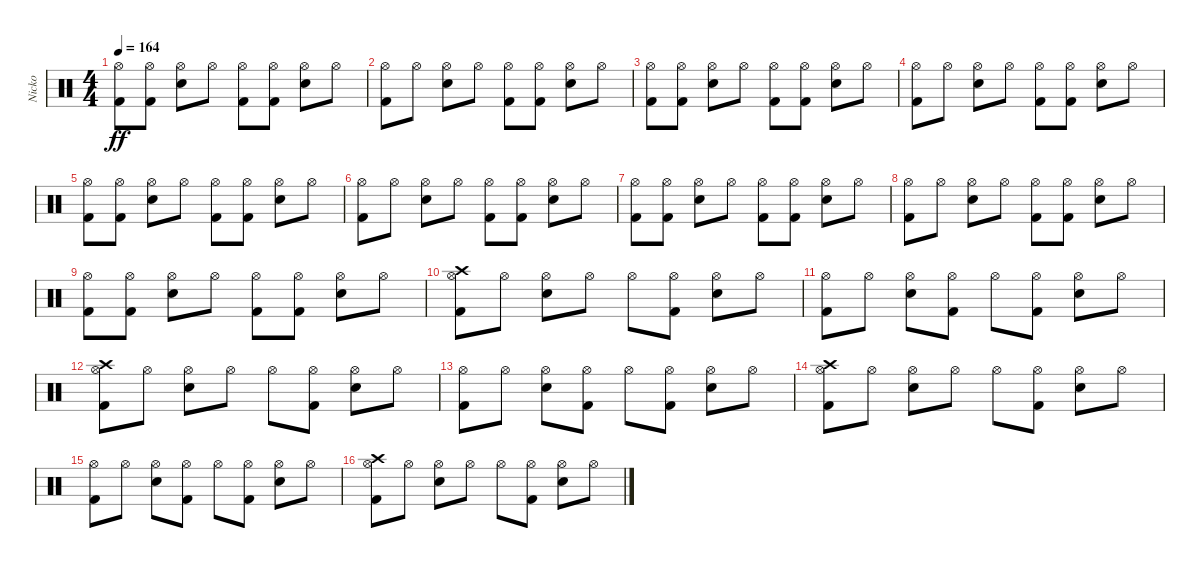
\track ("Nicko" "Nicko") {instrument percussion}
\staff {score}
\articulation defaults
\ts (4 4)
\tempo 164
\clef neutral
\ks c
("Kick (hit) 2" "Hi-Hat (open)").8{dy ff} ("Kick (hit) 2" "Hi-Hat (open)").8 ("Snare (hit) 2" "Hi-Hat (open)").8 "Hi-Hat (open)".8 ("Kick (hit) 2" "Hi-Hat (open)").8 ("Kick (hit) 2" "Hi-Hat (open)").8 ("Snare (hit) 2" "Hi-Hat (open)").8 "Hi-Hat (open)".8 |
("Kick (hit) 2" "Hi-Hat (open)").8 "Hi-Hat (open)".8 ("Snare (hit) 2" "Hi-Hat (open)").8 "Hi-Hat (open)".8 ("Kick (hit) 2" "Hi-Hat (open)").8 ("Kick (hit) 2" "Hi-Hat (open)").8 ("Snare (hit) 2" "Hi-Hat (open)").8 "Hi-Hat (open)".8 |
("Kick (hit) 2" "Hi-Hat (open)").8 ("Kick (hit) 2" "Hi-Hat (open)").8 ("Snare (hit) 2" "Hi-Hat (open)").8 "Hi-Hat (open)".8 ("Kick (hit) 2" "Hi-Hat (open)").8 ("Kick (hit) 2" "Hi-Hat (open)").8 ("Snare (hit) 2" "Hi-Hat (open)").8 "Hi-Hat (open)".8 |
("Kick (hit) 2" "Hi-Hat (open)").8 "Hi-Hat (open)".8 ("Snare (hit) 2" "Hi-Hat (open)").8 "Hi-Hat (open)".8 ("Kick (hit) 2" "Hi-Hat (open)").8 ("Kick (hit) 2" "Hi-Hat (open)").8 ("Snare (hit) 2" "Hi-Hat (open)").8 "Hi-Hat (open)".8 |
("Kick (hit) 2" "Hi-Hat (open)").8 ("Kick (hit) 2" "Hi-Hat (open)").8 ("Snare (hit) 2" "Hi-Hat (open)").8 "Hi-Hat (open)".8 ("Kick (hit) 2" "Hi-Hat (open)").8 ("Kick (hit) 2" "Hi-Hat (open)").8 ("Snare (hit) 2" "Hi-Hat (open)").8 "Hi-Hat (open)".8 |
("Kick (hit) 2" "Hi-Hat (open)").8 "Hi-Hat (open)".8 ("Snare (hit) 2" "Hi-Hat (open)").8 "Hi-Hat (open)".8 ("Kick (hit) 2" "Hi-Hat (open)").8 ("Kick (hit) 2" "Hi-Hat (open)").8 ("Snare (hit) 2" "Hi-Hat (open)").8 "Hi-Hat (open)".8 |
("Kick (hit) 2" "Hi-Hat (open)").8 ("Kick (hit) 2" "Hi-Hat (open)").8 ("Snare (hit) 2" "Hi-Hat (open)").8 "Hi-Hat (open)".8 ("Kick (hit) 2" "Hi-Hat (open)").8 ("Kick (hit) 2" "Hi-Hat (open)").8 ("Snare (hit) 2" "Hi-Hat (open)").8 "Hi-Hat (open)".8 |
("Kick (hit) 2" "Hi-Hat (open)").8 "Hi-Hat (open)".8 ("Snare (hit) 2" "Hi-Hat (open)").8 "Hi-Hat (open)".8 ("Kick (hit) 2" "Hi-Hat (open)").8 ("Kick (hit) 2" "Hi-Hat (open)").8 ("Snare (hit) 2" "Hi-Hat (open)").8 "Hi-Hat (open)".8 |
("Kick (hit) 2" "Hi-Hat (open)").8 ("Kick (hit) 2" "Hi-Hat (open)").8 ("Snare (hit) 2" "Hi-Hat (open)").8 "Hi-Hat (open)".8 ("Kick (hit) 2" "Hi-Hat (open)").8 ("Kick (hit) 2" "Hi-Hat (open)").8 ("Snare (hit) 2" "Hi-Hat (open)").8 "Hi-Hat (open)".8 |
("Kick (hit) 2" "Hi-Hat (open)" "Crash high (hit)").8 "Hi-Hat (open)".8 ("Snare (hit) 2" "Hi-Hat (open)").8 "Hi-Hat (open)".8 "Hi-Hat (open)".8 ("Kick (hit) 2" "Hi-Hat (open)").8 ("Snare (hit) 2" "Hi-Hat (open)").8 "Hi-Hat (open)".8 |
("Kick (hit) 2" "Hi-Hat (open)").8 "Hi-Hat (open)".8 ("Snare (hit) 2" "Hi-Hat (open)").8 ("Kick (hit) 2" "Hi-Hat (open)").8 "Hi-Hat (open)".8 ("Kick (hit) 2" "Hi-Hat (open)").8 ("Snare (hit) 2" "Hi-Hat (open)").8 "Hi-Hat (open)".8 |
("Kick (hit) 2" "Hi-Hat (open)" "Crash high (hit)").8 "Hi-Hat (open)".8 ("Snare (hit) 2" "Hi-Hat (open)").8 "Hi-Hat (open)".8 "Hi-Hat (open)".8 ("Kick (hit) 2" "Hi-Hat (open)").8 ("Snare (hit) 2" "Hi-Hat (open)").8 "Hi-Hat (open)".8 |
("Kick (hit) 2" "Hi-Hat (open)").8 "Hi-Hat (open)".8 ("Snare (hit) 2" "Hi-Hat (open)").8 ("Kick (hit) 2" "Hi-Hat (open)").8 "Hi-Hat (open)".8 ("Kick (hit) 2" "Hi-Hat (open)").8 ("Snare (hit) 2" "Hi-Hat (open)").8 "Hi-Hat (open)".8 |
("Kick (hit) 2" "Hi-Hat (open)" "Crash high (hit)").8 "Hi-Hat (open)".8 ("Snare (hit) 2" "Hi-Hat (open)").8 "Hi-Hat (open)".8 "Hi-Hat (open)".8 ("Kick (hit) 2" "Hi-Hat (open)").8 ("Snare (hit) 2" "Hi-Hat (open)").8 "Hi-Hat (open)".8 |
("Kick (hit) 2" "Hi-Hat (open)").8 "Hi-Hat (open)".8 ("Snare (hit) 2" "Hi-Hat (open)").8 ("Kick (hit) 2" "Hi-Hat (open)").8 "Hi-Hat (open)".8 ("Kick (hit) 2" "Hi-Hat (open)").8 ("Snare (hit) 2" "Hi-Hat (open)").8 "Hi-Hat (open)".8 |
("Kick (hit) 2" "Hi-Hat (open)" "Crash high (hit)").8 "Hi-Hat (open)".8 ("Snare (hit) 2" "Hi-Hat (open)").8 "Hi-Hat (open)".8 "Hi-Hat (open)".8 ("Kick (hit) 2" "Hi-Hat (open)").8 ("Snare (hit) 2" "Hi-Hat (open)").8 "Hi-Hat (open)".8
